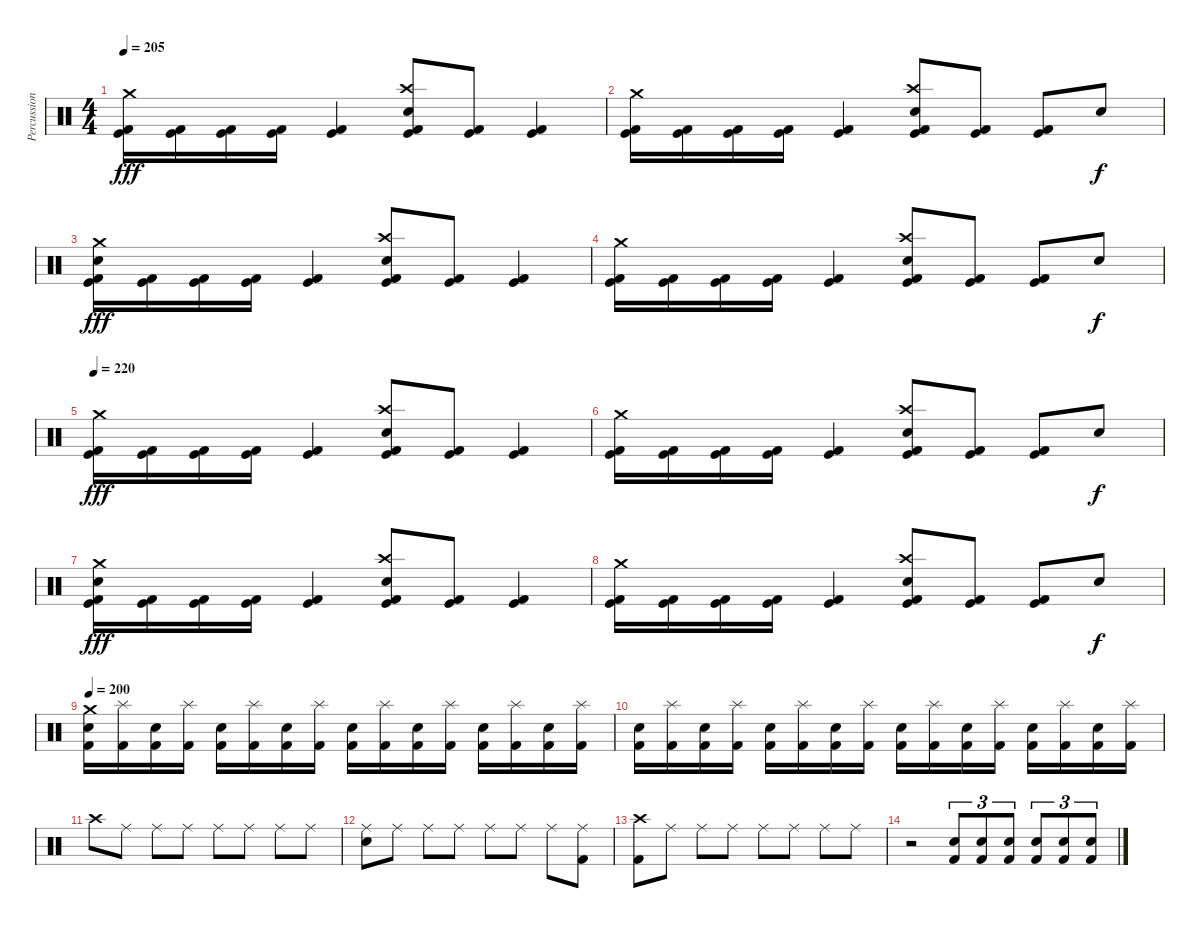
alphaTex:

\track ("Percussion" "Percussion") {instrument percussion}
\staff {score}
\articulation defaults
\ts (4 4)
\tempo 205
\clef neutral
\ks c
("Crash medium (hit)" "Kick (hit) 2" "Kick (hit)").16{dy fff} ("Kick (hit) 2" "Kick (hit)").16 ("Kick (hit) 2" "Kick (hit)").16 ("Kick (hit) 2" "Kick (hit)").16 ("Kick (hit) 2" "Kick (hit)").4 ("Crash high (hit)" "Electric Snare (hit)" "Kick (hit) 2" "Kick (hit)").8 ("Kick (hit) 2" "Kick (hit)").8 ("Kick (hit) 2" "Kick (hit)").4 |
("Crash medium (hit)" "Kick (hit) 2" "Kick (hit)").16 ("Kick (hit) 2" "Kick (hit)").16 ("Kick (hit) 2" "Kick (hit)").16 ("Kick (hit) 2" "Kick (hit)").16 ("Kick (hit) 2" "Kick (hit)").4 ("Crash high (hit)" "Electric Snare (hit)" "Kick (hit) 2" "Kick (hit)").8 ("Kick (hit) 2" "Kick (hit)").8 ("Kick (hit) 2" "Kick (hit)").8 "Electric Snare (hit)".8{dy f} |
("Crash medium (hit)" "Electric Snare (hit)" "Kick (hit) 2" "Kick (hit)").16{dy fff} ("Kick (hit) 2" "Kick (hit)").16 ("Kick (hit) 2" "Kick (hit)").16 ("Kick (hit) 2" "Kick (hit)").16 ("Kick (hit) 2" "Kick (hit)").4 ("Crash high (hit)" "Electric Snare (hit)" "Kick (hit) 2" "Kick (hit)").8 ("Kick (hit) 2" "Kick (hit)").8 ("Kick (hit) 2" "Kick (hit)").4 |
("Crash medium (hit)" "Kick (hit) 2" "Kick (hit)").16 ("Kick (hit) 2" "Kick (hit)").16 ("Kick (hit) 2" "Kick (hit)").16 ("Kick (hit) 2" "Kick (hit)").16 ("Kick (hit) 2" "Kick (hit)").4 ("Crash high (hit)" "Electric Snare (hit)" "Kick (hit) 2" "Kick (hit)").8 ("Kick (hit) 2" "Kick (hit)").8 ("Kick (hit) 2" "Kick (hit)").8 "Electric Snare (hit)".8{dy f} |
\tempo 220
("Crash medium (hit)" "Kick (hit) 2" "Kick (hit)").16{dy fff} ("Kick (hit) 2" "Kick (hit)").16 ("Kick (hit) 2" "Kick (hit)").16 ("Kick (hit) 2" "Kick (hit)").16 ("Kick (hit) 2" "Kick (hit)").4 ("Crash high (hit)" "Electric Snare (hit)" "Kick (hit) 2" "Kick (hit)").8 ("Kick (hit) 2" "Kick (hit)").8 ("Kick (hit) 2" "Kick (hit)").4 |
("Crash medium (hit)" "Kick (hit) 2" "Kick (hit)").16 ("Kick (hit) 2" "Kick (hit)").16 ("Kick (hit) 2" "Kick (hit)").16 ("Kick (hit) 2" "Kick (hit)").16 ("Kick (hit) 2" "Kick (hit)").4 ("Crash high (hit)" "Electric Snare (hit)" "Kick (hit) 2" "Kick (hit)").8 ("Kick (hit) 2" "Kick (hit)").8 ("Kick (hit) 2" "Kick (hit)").8 "Electric Snare (hit)".8{dy f} |
("Crash medium (hit)" "Electric Snare (hit)" "Kick (hit) 2" "Kick (hit)").16{dy fff} ("Kick (hit) 2" "Kick (hit)").16 ("Kick (hit) 2" "Kick (hit)").16 ("Kick (hit) 2" "Kick (hit)").16 ("Kick (hit) 2" "Kick (hit)").4 ("Crash high (hit)" "Electric Snare (hit)" "Kick (hit) 2" "Kick (hit)").8 ("Kick (hit) 2" "Kick (hit)").8 ("Kick (hit) 2" "Kick (hit)").4 |
("Crash medium (hit)" "Kick (hit) 2" "Kick (hit)").16 ("Kick (hit) 2" "Kick (hit)").16 ("Kick (hit) 2" "Kick (hit)").16 ("Kick (hit) 2" "Kick (hit)").16 ("Kick (hit) 2" "Kick (hit)").4 ("Crash high (hit)" "Electric Snare (hit)" "Kick (hit) 2" "Kick (hit)").8 ("Kick (hit) 2" "Kick (hit)").8 ("Kick (hit) 2" "Kick (hit)").8 "Electric Snare (hit)".8{dy f} |
\tempo 200
("Crash medium (hit)" "Electric Snare (hit)" "Kick (hit) 2").16 ("Splash (hit)" "Kick (hit) 2").16 ("Electric Snare (hit)" "Kick (hit) 2").16 ("Splash (hit)" "Kick (hit) 2").16 ("Electric Snare (hit)" "Kick (hit) 2").16 ("Splash (hit)" "Kick (hit) 2").16 ("Electric Snare (hit)" "Kick (hit) 2").16 ("Splash (hit)" "Kick (hit) 2").16 ("Electric Snare (hit)" "Kick (hit) 2").16 ("Splash (hit)" "Kick (hit) 2").16 ("Electric Snare (hit)" "Kick (hit) 2").16 ("Splash (hit)" "Kick (hit) 2").16 ("Electric Snare (hit)" "Kick (hit) 2").16 ("Splash (hit)" "Kick (hit) 2").16 ("Electric Snare (hit)" "Kick (hit) 2").16 ("Splash (hit)" "Kick (hit) 2").16 |
("Electric Snare (hit)" "Kick (hit) 2").16 ("Splash (hit)" "Kick (hit) 2").16 ("Electric Snare (hit)" "Kick (hit) 2").16 ("Splash (hit)" "Kick (hit) 2").16 ("Electric Snare (hit)" "Kick (hit) 2").16 ("Splash (hit)" "Kick (hit) 2").16 ("Electric Snare (hit)" "Kick (hit) 2").16 ("Splash (hit)" "Kick (hit) 2").16 ("Electric Snare (hit)" "Kick (hit) 2").16 ("Splash (hit)" "Kick (hit) 2").16 ("Electric Snare (hit)" "Kick (hit) 2").16 ("Splash (hit)" "Kick (hit) 2").16 ("Electric Snare (hit)" "Kick (hit) 2").16 ("Splash (hit)" "Kick (hit) 2").16 ("Electric Snare (hit)" "Kick (hit) 2").16 ("Splash (hit)" "Kick (hit) 2").16 |
"Crash high (hit)".8 "Ride (middle)".8 "Ride (middle)".8 "Ride (middle)".8 "Ride (middle)".8 "Ride (middle)".8 "Ride (middle)".8 "Ride (middle)".8 |
("Ride (middle)" "Electric Snare (hit)").8 "Ride (middle)".8 "Ride (middle)".8 "Ride (middle)".8 "Ride (middle)".8 "Ride (middle)".8 "Ride (middle)".8 ("Ride (middle)" "Kick (hit) 2").8 |
("Crash high (hit)" "Kick (hit) 2").8 "Ride (middle)".8 "Ride (middle)".8 "Ride (middle)".8 "Ride (middle)".8 "Ride (middle)".8 "Ride (middle)".8 "Ride (middle)".8 |
r.2 ("Electric Snare (hit)" "Kick (hit) 2").8{tu (3 2)} ("Electric Snare (hit)" "Kick (hit) 2").8{tu (3 2)} ("Electric Snare (hit)" "Kick (hit) 2").8{tu (3 2)} ("Electric Snare (hit)" "Kick (hit) 2").8{tu (3 2)} ("Electric Snare (hit)" "Kick (hit) 2").8{tu (3 2)} ("Electric Snare (hit)" "Kick (hit) 2").8{tu (3 2)}
